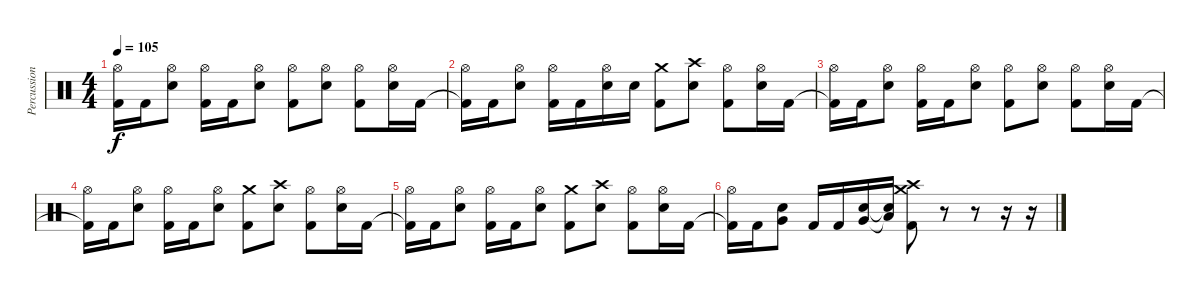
\track ("Percussion" "Percussion") {instrument percussion}
\staff {score}
\articulation defaults
\ts (4 4)
\tempo 105
\clef neutral
\ks c
("Kick (hit) 2"{t} "Hi-Hat (open)").16{dy f} "Kick (hit) 2".16 ("Electric Snare (hit)" "Hi-Hat (open)").8 ("Kick (hit) 2" "Hi-Hat (open)").16 "Kick (hit) 2".16 ("Electric Snare (hit)" "Hi-Hat (open)").8 ("Kick (hit) 2" "Hi-Hat (open)").8 ("Electric Snare (hit)" "Hi-Hat (open)").8 ("Kick (hit) 2" "Hi-Hat (open)").8 ("Electric Snare (hit)" "Hi-Hat (open)").16 "Kick (hit) 2".16 |
("Kick (hit) 2"{t} "Hi-Hat (open)").16 "Kick (hit) 2".16 ("Electric Snare (hit)" "Hi-Hat (open)").8 ("Kick (hit) 2" "Hi-Hat (open)").16 "Kick (hit) 2".16 ("Electric Snare (hit)" "Hi-Hat (open)").16 "Electric Snare (hit)".16 ("Kick (hit) 2" "Crash medium (hit)").8 ("Electric Snare (hit)" "Crash high (hit)").8 ("Kick (hit) 2" "Hi-Hat (open)").8 ("Electric Snare (hit)" "Hi-Hat (open)").16 "Kick (hit) 2".16 |
("Kick (hit) 2"{t} "Hi-Hat (open)").16 "Kick (hit) 2".16 ("Electric Snare (hit)" "Hi-Hat (open)").8 ("Kick (hit) 2" "Hi-Hat (open)").16 "Kick (hit) 2".16 ("Electric Snare (hit)" "Hi-Hat (open)").8 ("Kick (hit) 2" "Hi-Hat (open)").8 ("Electric Snare (hit)" "Hi-Hat (open)").8 ("Kick (hit) 2" "Hi-Hat (open)").8 ("Electric Snare (hit)" "Hi-Hat (open)").16 "Kick (hit) 2".16 |
("Kick (hit) 2"{t} "Hi-Hat (open)").16 "Kick (hit) 2".16 ("Electric Snare (hit)" "Hi-Hat (open)").8 ("Kick (hit) 2" "Hi-Hat (open)").16 "Kick (hit) 2".16 ("Electric Snare (hit)" "Hi-Hat (open)").8 ("Kick (hit) 2" "Crash medium (hit)").8 ("Electric Snare (hit)" "Crash high (hit)").8 ("Kick (hit) 2" "Hi-Hat (open)").8 ("Electric Snare (hit)" "Hi-Hat (open)").16 "Kick (hit) 2".16 |
("Kick (hit) 2"{t} "Hi-Hat (open)").16 "Kick (hit) 2".16 ("Electric Snare (hit)" "Hi-Hat (open)").8 ("Kick (hit) 2" "Hi-Hat (open)").16 "Kick (hit) 2".16 ("Electric Snare (hit)" "Hi-Hat (open)").8 ("Kick (hit) 2" "Crash medium (hit)").8 ("Electric Snare (hit)" "Crash high (hit)").8 ("Kick (hit) 2" "Hi-Hat (open)").8 ("Electric Snare (hit)" "Hi-Hat (open)").16 "Kick (hit) 2".16 |
("Kick (hit) 2"{t} "Hi-Hat (open)").16 "Kick (hit) 2".16 ("Electric Snare (hit)" "Very Low Tom (hit)").8 "Kick (hit) 2".16 "Kick (hit) 2".16 ("Electric Snare (hit)" "Very Low Tom (hit)").16 ("Electric Snare (hit)"{t} "Low Tom (hit)"{t}).16 ("Kick (hit) 2" "Crash high (hit)" "Crash medium (hit)").8 r.8 r.8 r.16 r.16
